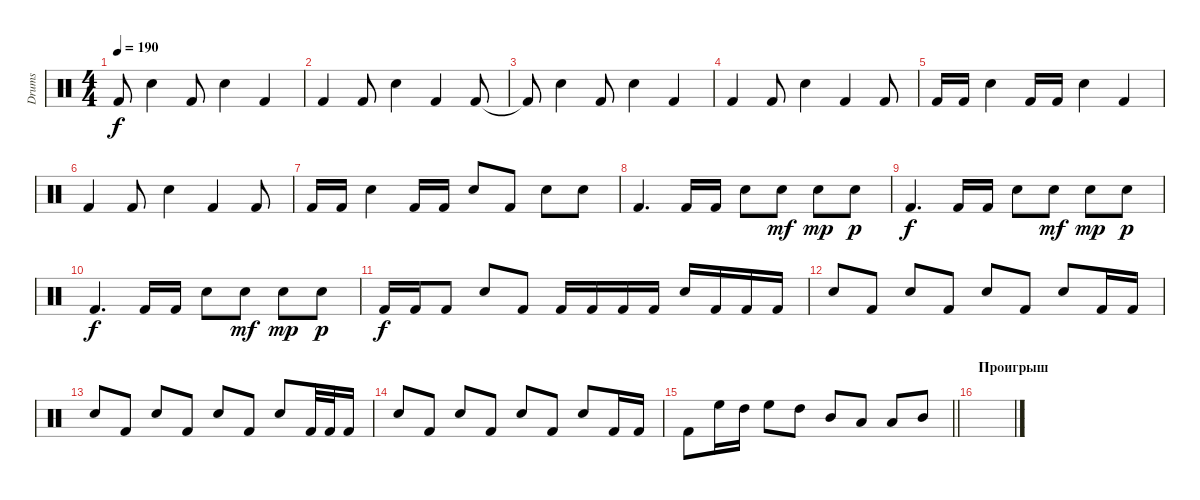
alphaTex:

\track ("Drums" "Drums") {instrument percussion}
\staff {score}
\articulation defaults
\ts (4 4)
\tempo 190
\clef neutral
\ks c "Kick (hit) 2"{t}.8{dy f} "Snare (hit) 2".4 "Kick (hit) 2".8 "Snare (hit) 2".4 "Kick (hit) 2".4
|
"Kick (hit) 2".4 "Kick (hit) 2".8 "Snare (hit) 2".4 "Kick (hit) 2".4 "Kick (hit) 2".8 |
"Kick (hit) 2"{t}.8 "Snare (hit) 2".4 "Kick (hit) 2".8 "Snare (hit) 2".4 "Kick (hit) 2".4 |
"Kick (hit) 2".4 "Kick (hit) 2".8 "Snare (hit) 2".4 "Kick (hit) 2".4 "Kick (hit) 2".8 |
"Kick (hit) 2".16 "Kick (hit) 2".16 "Snare (hit) 2".4 "Kick (hit) 2".16 "Kick (hit) 2".16 "Snare (hit) 2".4 "Kick (hit) 2".4 |
"Kick (hit) 2".4 "Kick (hit) 2".8 "Snare (hit) 2".4 "Kick (hit) 2".4 "Kick (hit) 2".8 |
"Kick (hit) 2".16 "Kick (hit) 2".16 "Snare (hit) 2".4 "Kick (hit) 2".16 "Kick (hit) 2".16 "Snare (hit) 2".8 "Kick (hit) 2".8 "Snare (hit) 2".8 "Snare (hit) 2".8 |
"Kick (hit) 2".4{d} "Kick (hit) 2".16 "Kick (hit) 2".16 "Snare (hit) 2".8 "Snare (hit) 2".8{dy mf} "Snare (hit) 2".8{dy mp} "Snare (hit) 2".8{dy p} |
"Kick (hit) 2".4{d dy f} "Kick (hit) 2".16 "Kick (hit) 2".16 "Snare (hit) 2".8 "Snare (hit) 2".8{dy mf} "Snare (hit) 2".8{dy mp} "Snare (hit) 2".8{dy p} |
"Kick (hit) 2".4{d dy f} "Kick (hit) 2".16 "Kick (hit) 2".16 "Snare (hit) 2".8 "Snare (hit) 2".8{dy mf} "Snare (hit) 2".8{dy mp} "Snare (hit) 2".8{dy p} |
"Kick (hit) 2".16{dy f} "Kick (hit) 2".16 "Kick (hit) 2".8 "Snare (hit) 2".8 "Kick (hit) 2".8 "Kick (hit) 2".16 "Kick (hit) 2".16 "Kick (hit) 2".16 "Kick (hit) 2".16 "Snare (hit) 2".16 "Kick (hit) 2".16 "Kick (hit) 2".16 "Kick (hit) 2".16 |
"Snare (hit) 2".8 "Kick (hit) 2".8 "Snare (hit) 2".8 "Kick (hit) 2".8 "Snare (hit) 2".8 "Kick (hit) 2".8 "Snare (hit) 2".8 "Kick (hit) 2".16 "Kick (hit) 2".16 |
"Snare (hit) 2".8 "Kick (hit) 2".8 "Snare (hit) 2".8 "Kick (hit) 2".8 "Snare (hit) 2".8 "Kick (hit) 2".8 "Snare (hit) 2".8 "Kick (hit) 2".32 "Kick (hit) 2".32 "Kick (hit) 2".16 |
"Snare (hit) 2".8 "Kick (hit) 2".8 "Snare (hit) 2".8 "Kick (hit) 2".8 "Snare (hit) 2".8 "Kick (hit) 2".8 "Snare (hit) 2".8 "Kick (hit) 2".16 "Kick (hit) 2".16 |
\barLineRight lightlight "Kick (hit) 2".8 "High Floor Tom (hit)".16 "High Tom (hit)".16 "High Floor Tom (hit)".8 "High Tom (hit)".8 "Mid Tom (hit)".8 "Low Tom (hit)".8 "Low Tom (hit)".8 "Mid Tom (hit)".8
|
\section ("" "Проигрыш")
